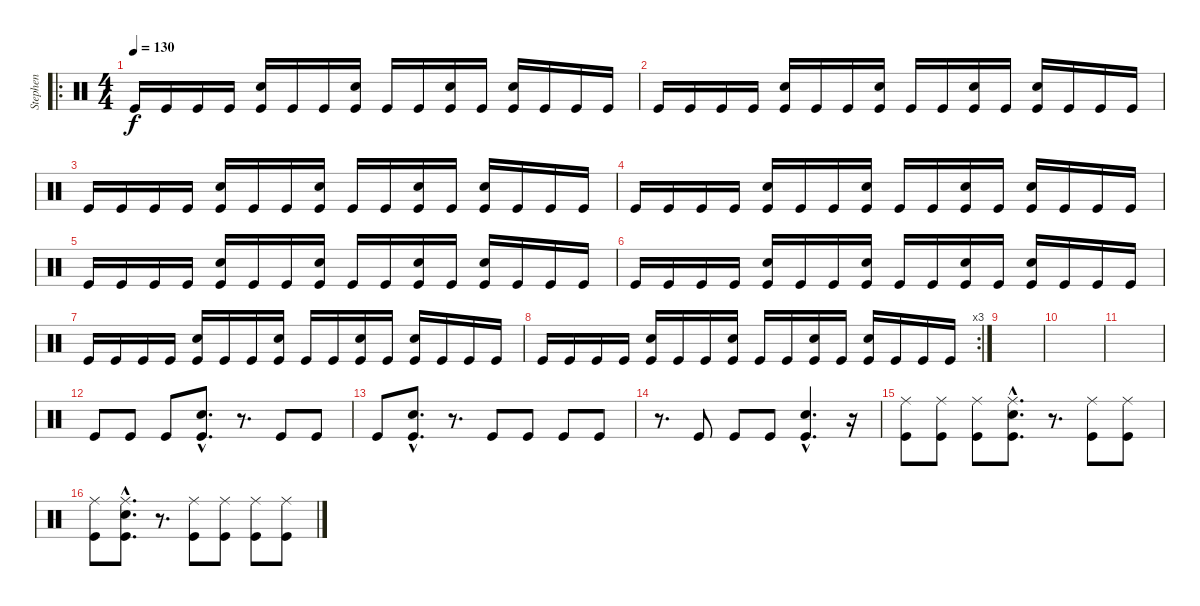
\track ("Stephen" "Stephen") {instrument percussion}
\staff {score}
\articulation defaults
\ro
\ts (4 4)
\tempo 130
\clef neutral
\ks c "Kick (hit)".16{dy f} "Kick (hit)".16 "Kick (hit)".16 "Kick (hit)".16
("Electric Snare (hit)" "Kick (hit)").16 "Kick (hit)".16 "Kick (hit)".16 ("Electric Snare (hit)" "Kick (hit)").16 "Kick (hit)".16 "Kick (hit)".16 ("Electric Snare (hit)" "Kick (hit)").16 "Kick (hit)".16 ("Electric Snare (hit)" "Kick (hit)").16 "Kick (hit)".16 "Kick (hit)".16 "Kick (hit)".16 |
"Kick (hit)".16 "Kick (hit)".16 "Kick (hit)".16 "Kick (hit)".16 ("Electric Snare (hit)" "Kick (hit)").16 "Kick (hit)".16 "Kick (hit)".16 ("Electric Snare (hit)" "Kick (hit)").16 "Kick (hit)".16 "Kick (hit)".16 ("Electric Snare (hit)" "Kick (hit)").16 "Kick (hit)".16 ("Electric Snare (hit)" "Kick (hit)").16 "Kick (hit)".16 "Kick (hit)".16 "Kick (hit)".16 |
"Kick (hit)".16 "Kick (hit)".16 "Kick (hit)".16 "Kick (hit)".16 ("Electric Snare (hit)" "Kick (hit)").16 "Kick (hit)".16 "Kick (hit)".16 ("Electric Snare (hit)" "Kick (hit)").16 "Kick (hit)".16 "Kick (hit)".16 ("Electric Snare (hit)" "Kick (hit)").16 "Kick (hit)".16 ("Electric Snare (hit)" "Kick (hit)").16 "Kick (hit)".16 "Kick (hit)".16 "Kick (hit)".16 |
"Kick (hit)".16 "Kick (hit)".16 "Kick (hit)".16 "Kick (hit)".16 ("Electric Snare (hit)" "Kick (hit)").16 "Kick (hit)".16 "Kick (hit)".16 ("Electric Snare (hit)" "Kick (hit)").16 "Kick (hit)".16 "Kick (hit)".16 ("Electric Snare (hit)" "Kick (hit)").16 "Kick (hit)".16 ("Electric Snare (hit)" "Kick (hit)").16 "Kick (hit)".16 "Kick (hit)".16 "Kick (hit)".16 |
"Kick (hit)".16 "Kick (hit)".16 "Kick (hit)".16 "Kick (hit)".16 ("Electric Snare (hit)" "Kick (hit)").16 "Kick (hit)".16 "Kick (hit)".16 ("Electric Snare (hit)" "Kick (hit)").16 "Kick (hit)".16 "Kick (hit)".16 ("Electric Snare (hit)" "Kick (hit)").16 "Kick (hit)".16 ("Electric Snare (hit)" "Kick (hit)").16 "Kick (hit)".16 "Kick (hit)".16 "Kick (hit)".16 |
"Kick (hit)".16 "Kick (hit)".16 "Kick (hit)".16 "Kick (hit)".16 ("Electric Snare (hit)" "Kick (hit)").16 "Kick (hit)".16 "Kick (hit)".16 ("Electric Snare (hit)" "Kick (hit)").16 "Kick (hit)".16 "Kick (hit)".16 ("Electric Snare (hit)" "Kick (hit)").16 "Kick (hit)".16 ("Electric Snare (hit)" "Kick (hit)").16 "Kick (hit)".16 "Kick (hit)".16 "Kick (hit)".16 |
"Kick (hit)".16 "Kick (hit)".16 "Kick (hit)".16 "Kick (hit)".16 ("Electric Snare (hit)" "Kick (hit)").16 "Kick (hit)".16 "Kick (hit)".16 ("Electric Snare (hit)" "Kick (hit)").16 "Kick (hit)".16 "Kick (hit)".16 ("Electric Snare (hit)" "Kick (hit)").16 "Kick (hit)".16 ("Electric Snare (hit)" "Kick (hit)").16 "Kick (hit)".16 "Kick (hit)".16 "Kick (hit)".16 |
\rc 3 "Kick (hit)".16 "Kick (hit)".16 "Kick (hit)".16 "Kick (hit)".16
("Electric Snare (hit)" "Kick (hit)").16 "Kick (hit)".16 "Kick (hit)".16 ("Electric Snare (hit)" "Kick (hit)").16 "Kick (hit)".16 "Kick (hit)".16 ("Electric Snare (hit)" "Kick (hit)").16 "Kick (hit)".16 ("Electric Snare (hit)" "Kick (hit)").16 "Kick (hit)".16 "Kick (hit)".16 "Kick (hit)".16 |
|
|
|
"Kick (hit)".8 "Kick (hit)".8 "Kick (hit)".8 ("Electric Snare (hit)"{hac} "Kick (hit)"{hac}).8{d} r.8{d} "Kick (hit)".8 "Kick (hit)".8 |
"Kick (hit)".8 ("Electric Snare (hit)"{hac} "Kick (hit)"{hac}).8{d} r.8{d} "Kick (hit)".8 "Kick (hit)".8 "Kick (hit)".8 "Kick (hit)".8 |
r.8{d} "Kick (hit)".8 "Kick (hit)".8 "Kick (hit)".8 ("Electric Snare (hit)"{hac} "Kick (hit)"{hac}).4{d} r.16 |
("Ride (middle)" "Kick (hit)").8 ("Ride (middle)" "Kick (hit)").8 ("Ride (middle)" "Kick (hit)").8 ("Ride (middle)"{hac} "Electric Snare (hit)"{hac} "Kick (hit)"{hac}).8{d} r.8{d} ("Ride (middle)" "Kick (hit)").8 ("Ride (middle)" "Kick (hit)").8 |
("Ride (middle)" "Kick (hit)").8 ("Ride (middle)"{hac} "Electric Snare (hit)"{hac} "Kick (hit)"{hac}).8{d} r.8{d} ("Ride (middle)" "Kick (hit)").8 ("Ride (middle)" "Kick (hit)").8 ("Ride (middle)" "Kick (hit)").8 ("Ride (middle)" "Kick (hit)").8
